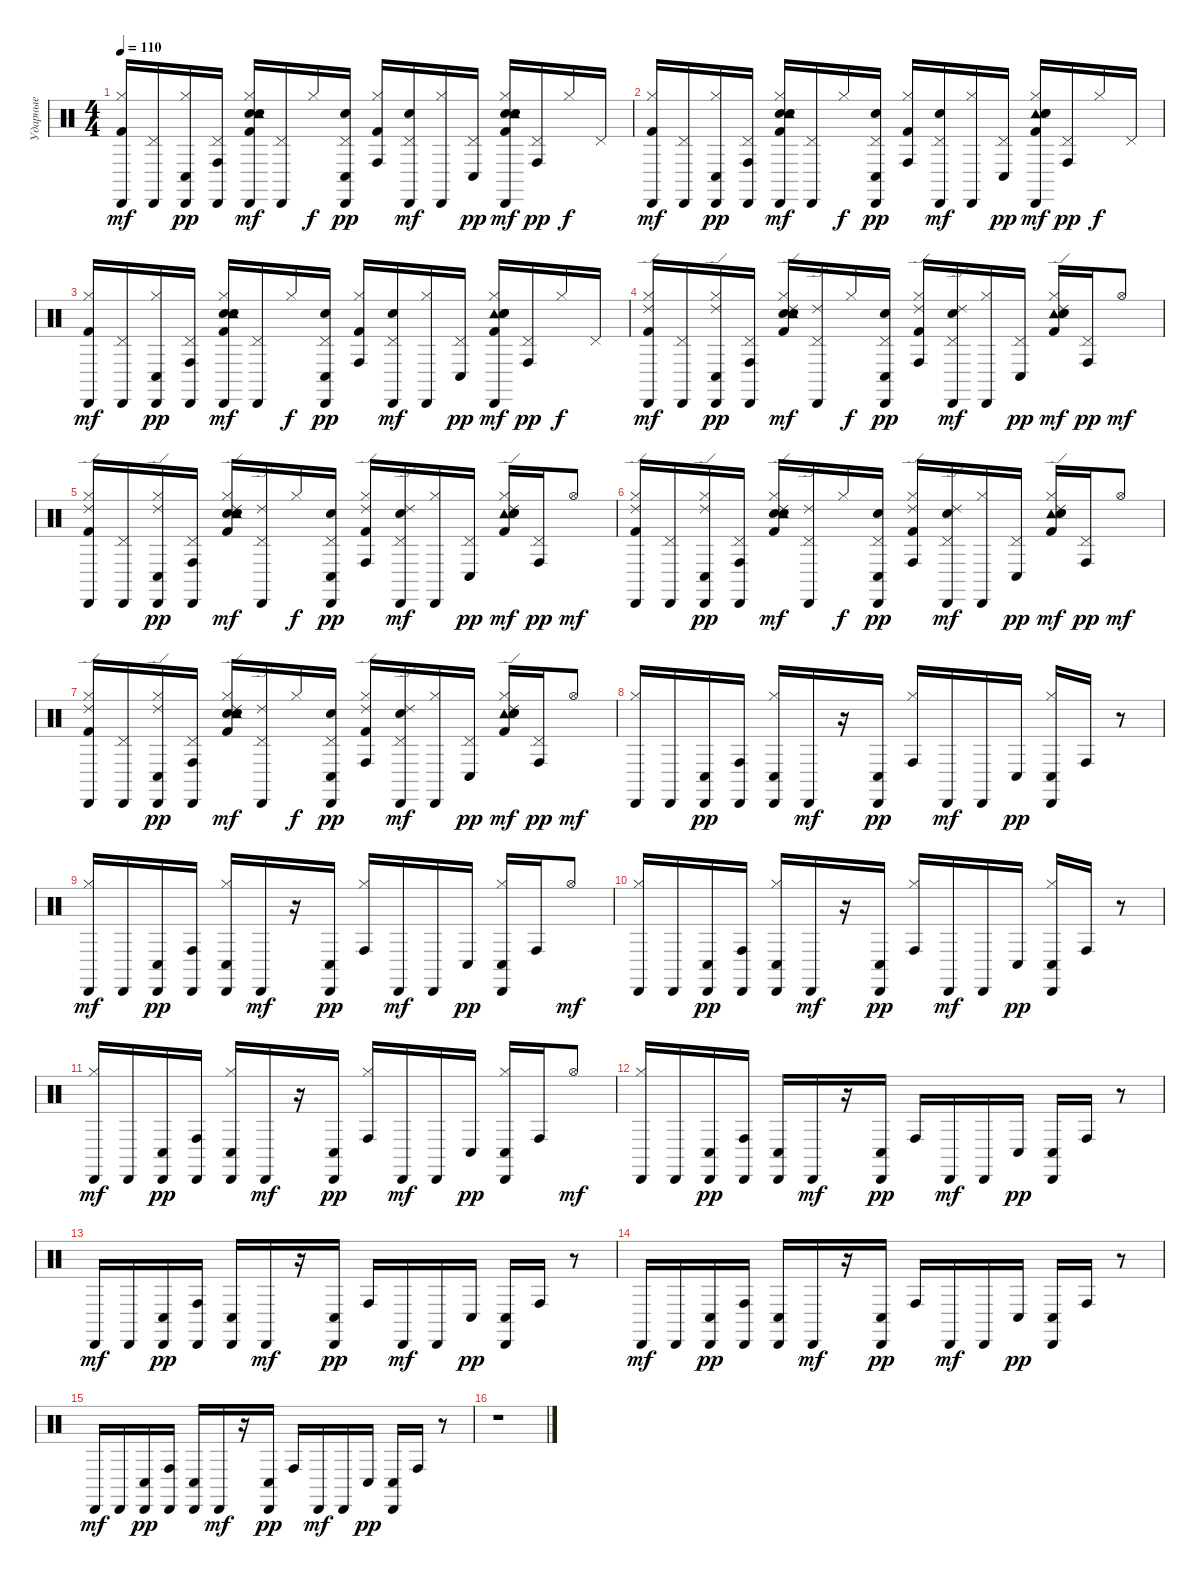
\track ("Ударные" "Ударные") {instrument percussion}
\staff {score}
\articulation defaults
\ts (4 4)
\tempo 110
\clef neutral
\ks c
("Kick (hit) 2" "Hi-Hat (closed)" "Cabasa (hit)").16{dy mf} ("Pedal Hi-Hat (hit)" "Cabasa (hit)").16 ("Hi-Hat (closed)" "Cabasa (hit)" "Conga low (hit)").16{dy pp} ("Pedal Hi-Hat (hit)" "Cabasa (hit)" "Conga high (hit)").16 ("Kick (hit) 2" "Snare (hit) 2" "Tambourine (hit)" "Electric Snare (hit)" "Hi-Hat (closed)" "Cabasa (hit)").16{dy mf} ("Pedal Hi-Hat (hit)" "Cabasa (hit)").16 "Hi-Hat (closed)".16{dy f} ("Electric Snare (hit)" "Pedal Hi-Hat (hit)" "Cabasa (hit)" "Conga low (hit)").16{dy pp} ("Kick (hit) 2" "Hi-Hat (closed)" "Conga high (hit)").16 ("Electric Snare (hit)" "Pedal Hi-Hat (hit)" "Cabasa (hit)").16{dy mf} ("Hi-Hat (closed)" "Cabasa (hit)").16 ("Pedal Hi-Hat (hit)" "Conga low (hit)").16{dy pp} ("Electric Snare (hit)" "Kick (hit) 2" "Tambourine (hit)" "Snare (hit) 2" "Hi-Hat (closed)" "Cabasa (hit)").16{dy mf} ("Pedal Hi-Hat (hit)" "Conga high (hit)").16{dy pp} "Hi-Hat (closed)".16{dy f} "Pedal Hi-Hat (hit)".16 |
("Kick (hit) 2" "Hi-Hat (closed)" "Cabasa (hit)").16{dy mf} ("Pedal Hi-Hat (hit)" "Cabasa (hit)").16 ("Hi-Hat (closed)" "Cabasa (hit)" "Conga low (hit)").16{dy pp} ("Pedal Hi-Hat (hit)" "Cabasa (hit)" "Conga high (hit)").16 ("Kick (hit) 2" "Snare (hit) 2" "Tambourine (hit)" "Electric Snare (hit)" "Hi-Hat (closed)" "Cabasa (hit)").16{dy mf} ("Pedal Hi-Hat (hit)" "Cabasa (hit)").16 "Hi-Hat (closed)".16{dy f} ("Electric Snare (hit)" "Pedal Hi-Hat (hit)" "Cabasa (hit)" "Conga low (hit)").16{dy pp} ("Kick (hit) 2" "Hi-Hat (closed)" "Conga high (hit)").16 ("Electric Snare (hit)" "Pedal Hi-Hat (hit)" "Cabasa (hit)").16{dy mf} ("Hi-Hat (closed)" "Cabasa (hit)").16 ("Pedal Hi-Hat (hit)" "Conga low (hit)").16{dy pp} ("Tambourine (hit)" "Electric Snare (hit)" "Snare (hit) 2" "Kick (hit) 2" "Hi-Hat (closed)" "Cabasa (hit)").16{dy mf} ("Pedal Hi-Hat (hit)" "Conga high (hit)").16{dy pp} "Hi-Hat (closed)".16{dy f} "Pedal Hi-Hat (hit)".16 |
("Kick (hit) 2" "Hi-Hat (closed)" "Cabasa (hit)").16{dy mf} ("Pedal Hi-Hat (hit)" "Cabasa (hit)").16 ("Hi-Hat (closed)" "Cabasa (hit)" "Conga low (hit)").16{dy pp} ("Pedal Hi-Hat (hit)" "Cabasa (hit)" "Conga high (hit)").16 ("Snare (hit) 2" "Kick (hit) 2" "Tambourine (hit)" "Electric Snare (hit)" "Hi-Hat (closed)" "Cabasa (hit)").16{dy mf} ("Pedal Hi-Hat (hit)" "Cabasa (hit)").16 "Hi-Hat (closed)".16{dy f} ("Electric Snare (hit)" "Pedal Hi-Hat (hit)" "Cabasa (hit)" "Conga low (hit)").16{dy pp} ("Kick (hit) 2" "Hi-Hat (closed)" "Conga high (hit)").16 ("Electric Snare (hit)" "Pedal Hi-Hat (hit)" "Cabasa (hit)").16{dy mf} ("Hi-Hat (closed)" "Cabasa (hit)").16 ("Pedal Hi-Hat (hit)" "Conga low (hit)").16{dy pp} ("Kick (hit) 2" "Tambourine (hit)" "Snare (hit) 2" "Electric Snare (hit)" "Hi-Hat (closed)" "Cabasa (hit)").16{dy mf} ("Pedal Hi-Hat (hit)" "Conga high (hit)").16{dy pp} "Hi-Hat (closed)".16{dy f} "Pedal Hi-Hat (hit)".16 |
("Kick (hit) 2" "Hi-Hat (closed)" "Ride (edge) 2" "Cabasa (hit)").16{dy mf} ("Pedal Hi-Hat (hit)" "Cabasa (hit)").16 ("Hi-Hat (closed)" "Ride (edge) 2" "Cabasa (hit)" "Conga low (hit)").16{dy pp} ("Pedal Hi-Hat (hit)" "Cabasa (hit)" "Conga high (hit)").16 ("Snare (hit) 2" "Kick (hit) 2" "Tambourine (hit)" "Electric Snare (hit)" "Hi-Hat (closed)" "Ride (edge) 2").16{dy mf} ("Pedal Hi-Hat (hit)" "Ride (edge) 2" "Cabasa (hit)").16 "Hi-Hat (closed)".16{dy f} ("Electric Snare (hit)" "Pedal Hi-Hat (hit)" "Cabasa (hit)" "Conga low (hit)").16{dy pp} ("Kick (hit) 2" "Hi-Hat (closed)" "Ride (edge) 2" "Conga high (hit)").16 ("Electric Snare (hit)" "Pedal Hi-Hat (hit)" "Ride (edge) 2" "Cabasa (hit)").16{dy mf} ("Hi-Hat (closed)" "Cabasa (hit)").16 ("Pedal Hi-Hat (hit)" "Conga low (hit)").16{dy pp} ("Kick (hit) 2" "Tambourine (hit)" "Snare (hit) 2" "Electric Snare (hit)" "Hi-Hat (closed)" "Ride (edge) 2").16{dy mf} ("Pedal Hi-Hat (hit)" "Conga high (hit)").16{dy pp} "Hi-Hat (open)".8{dy mf} |
("Kick (hit) 2" "Hi-Hat (closed)" "Ride (edge) 2" "Cabasa (hit)").16 ("Pedal Hi-Hat (hit)" "Cabasa (hit)").16 ("Hi-Hat (closed)" "Ride (edge) 2" "Cabasa (hit)" "Conga low (hit)").16{dy pp} ("Pedal Hi-Hat (hit)" "Cabasa (hit)" "Conga high (hit)").16 ("Snare (hit) 2" "Kick (hit) 2" "Tambourine (hit)" "Electric Snare (hit)" "Hi-Hat (closed)" "Ride (edge) 2").16{dy mf} ("Pedal Hi-Hat (hit)" "Ride (edge) 2" "Cabasa (hit)").16 "Hi-Hat (closed)".16{dy f} ("Electric Snare (hit)" "Pedal Hi-Hat (hit)" "Cabasa (hit)" "Conga low (hit)").16{dy pp} ("Kick (hit) 2" "Hi-Hat (closed)" "Ride (edge) 2" "Conga high (hit)").16 ("Electric Snare (hit)" "Pedal Hi-Hat (hit)" "Ride (edge) 2" "Cabasa (hit)").16{dy mf} ("Hi-Hat (closed)" "Cabasa (hit)").16 ("Pedal Hi-Hat (hit)" "Conga low (hit)").16{dy pp} ("Kick (hit) 2" "Tambourine (hit)" "Snare (hit) 2" "Electric Snare (hit)" "Hi-Hat (closed)" "Ride (edge) 2").16{dy mf} ("Pedal Hi-Hat (hit)" "Conga high (hit)").16{dy pp} "Hi-Hat (open)".8{dy mf} |
("Kick (hit) 2" "Hi-Hat (closed)" "Ride (edge) 2" "Cabasa (hit)").16 ("Pedal Hi-Hat (hit)" "Cabasa (hit)").16 ("Hi-Hat (closed)" "Ride (edge) 2" "Cabasa (hit)" "Conga low (hit)").16{dy pp} ("Pedal Hi-Hat (hit)" "Cabasa (hit)" "Conga high (hit)").16 ("Snare (hit) 2" "Kick (hit) 2" "Tambourine (hit)" "Electric Snare (hit)" "Hi-Hat (closed)" "Ride (edge) 2").16{dy mf} ("Pedal Hi-Hat (hit)" "Ride (edge) 2" "Cabasa (hit)").16 "Hi-Hat (closed)".16{dy f} ("Electric Snare (hit)" "Pedal Hi-Hat (hit)" "Cabasa (hit)" "Conga low (hit)").16{dy pp} ("Kick (hit) 2" "Hi-Hat (closed)" "Ride (edge) 2" "Conga high (hit)").16 ("Electric Snare (hit)" "Pedal Hi-Hat (hit)" "Ride (edge) 2" "Cabasa (hit)").16{dy mf} ("Hi-Hat (closed)" "Cabasa (hit)").16 ("Pedal Hi-Hat (hit)" "Conga low (hit)").16{dy pp} ("Kick (hit) 2" "Tambourine (hit)" "Snare (hit) 2" "Electric Snare (hit)" "Hi-Hat (closed)" "Ride (edge) 2").16{dy mf} ("Pedal Hi-Hat (hit)" "Conga high (hit)").16{dy pp} "Hi-Hat (open)".8{dy mf} |
("Kick (hit) 2" "Hi-Hat (closed)" "Ride (edge) 2" "Cabasa (hit)").16 ("Pedal Hi-Hat (hit)" "Cabasa (hit)").16 ("Hi-Hat (closed)" "Ride (edge) 2" "Cabasa (hit)" "Conga low (hit)").16{dy pp} ("Pedal Hi-Hat (hit)" "Cabasa (hit)" "Conga high (hit)").16 ("Snare (hit) 2" "Kick (hit) 2" "Tambourine (hit)" "Electric Snare (hit)" "Hi-Hat (closed)" "Ride (edge) 2").16{dy mf} ("Pedal Hi-Hat (hit)" "Ride (edge) 2" "Cabasa (hit)").16 "Hi-Hat (closed)".16{dy f} ("Electric Snare (hit)" "Pedal Hi-Hat (hit)" "Cabasa (hit)" "Conga low (hit)").16{dy pp} ("Kick (hit) 2" "Hi-Hat (closed)" "Ride (edge) 2" "Conga high (hit)").16 ("Electric Snare (hit)" "Pedal Hi-Hat (hit)" "Ride (edge) 2" "Cabasa (hit)").16{dy mf} ("Hi-Hat (closed)" "Cabasa (hit)").16 ("Pedal Hi-Hat (hit)" "Conga low (hit)").16{dy pp} ("Kick (hit) 2" "Tambourine (hit)" "Snare (hit) 2" "Electric Snare (hit)" "Hi-Hat (closed)" "Ride (edge) 2").16{dy mf} ("Pedal Hi-Hat (hit)" "Conga high (hit)").16{dy pp} "Hi-Hat (open)".8{dy mf} |
("Hi-Hat (closed)" "Cabasa (hit)").16 "Cabasa (hit)".16 ("Cabasa (hit)" "Conga low (hit)").16{dy pp} ("Cabasa (hit)" "Conga high (hit)").16 ("Hi-Hat (closed)" "Cabasa (hit)" "Conga low (hit)").16 "Cabasa (hit)".16{dy mf} r.16 ("Cabasa (hit)" "Conga low (hit)").16{dy pp} ("Hi-Hat (closed)" "Conga high (hit)").16 "Cabasa (hit)".16{dy mf} "Cabasa (hit)".16 "Conga low (hit)".16{dy pp} ("Hi-Hat (closed)" "Cabasa (hit)" "Conga low (hit)").16 "Conga high (hit)".16 r.8 |
("Hi-Hat (closed)" "Cabasa (hit)").16{dy mf} "Cabasa (hit)".16 ("Cabasa (hit)" "Conga low (hit)").16{dy pp} ("Cabasa (hit)" "Conga high (hit)").16 ("Hi-Hat (closed)" "Cabasa (hit)" "Conga low (hit)").16 "Cabasa (hit)".16{dy mf} r.16 ("Cabasa (hit)" "Conga low (hit)").16{dy pp} ("Hi-Hat (closed)" "Conga high (hit)").16 "Cabasa (hit)".16{dy mf} "Cabasa (hit)".16 "Conga low (hit)".16{dy pp} ("Hi-Hat (closed)" "Cabasa (hit)" "Conga low (hit)").16 "Conga high (hit)".16 "Hi-Hat (open)".8{dy mf} |
("Hi-Hat (closed)" "Cabasa (hit)").16 "Cabasa (hit)".16 ("Cabasa (hit)" "Conga low (hit)").16{dy pp} ("Cabasa (hit)" "Conga high (hit)").16 ("Hi-Hat (closed)" "Cabasa (hit)" "Conga low (hit)").16 "Cabasa (hit)".16{dy mf} r.16 ("Cabasa (hit)" "Conga low (hit)").16{dy pp} ("Hi-Hat (closed)" "Conga high (hit)").16 "Cabasa (hit)".16{dy mf} "Cabasa (hit)".16 "Conga low (hit)".16{dy pp} ("Hi-Hat (closed)" "Cabasa (hit)" "Conga low (hit)").16 "Conga high (hit)".16 r.8 |
("Hi-Hat (closed)" "Cabasa (hit)").16{dy mf} "Cabasa (hit)".16 ("Cabasa (hit)" "Conga low (hit)").16{dy pp} ("Cabasa (hit)" "Conga high (hit)").16 ("Hi-Hat (closed)" "Cabasa (hit)" "Conga low (hit)").16 "Cabasa (hit)".16{dy mf} r.16 ("Cabasa (hit)" "Conga low (hit)").16{dy pp} ("Hi-Hat (closed)" "Conga high (hit)").16 "Cabasa (hit)".16{dy mf} "Cabasa (hit)".16 "Conga low (hit)".16{dy pp} ("Hi-Hat (closed)" "Cabasa (hit)" "Conga low (hit)").16 "Conga high (hit)".16 "Hi-Hat (open)".8{dy mf} |
("Hi-Hat (closed)" "Cabasa (hit)").16 "Cabasa (hit)".16 ("Cabasa (hit)" "Conga low (hit)").16{dy pp} ("Cabasa (hit)" "Conga high (hit)").16 ("Cabasa (hit)" "Conga low (hit)").16 "Cabasa (hit)".16{dy mf} r.16 ("Cabasa (hit)" "Conga low (hit)").16{dy pp} "Conga high (hit)".16 "Cabasa (hit)".16{dy mf} "Cabasa (hit)".16 "Conga low (hit)".16{dy pp} ("Cabasa (hit)" "Conga low (hit)").16 "Conga high (hit)".16 r.8 |
"Cabasa (hit)".16{dy mf} "Cabasa (hit)".16 ("Cabasa (hit)" "Conga low (hit)").16{dy pp} ("Cabasa (hit)" "Conga high (hit)").16 ("Cabasa (hit)" "Conga low (hit)").16 "Cabasa (hit)".16{dy mf} r.16 ("Cabasa (hit)" "Conga low (hit)").16{dy pp} "Conga high (hit)".16 "Cabasa (hit)".16{dy mf} "Cabasa (hit)".16 "Conga low (hit)".16{dy pp} ("Cabasa (hit)" "Conga low (hit)").16 "Conga high (hit)".16 r.8 |
"Cabasa (hit)".16{dy mf} "Cabasa (hit)".16 ("Cabasa (hit)" "Conga low (hit)").16{dy pp} ("Cabasa (hit)" "Conga high (hit)").16 ("Cabasa (hit)" "Conga low (hit)").16 "Cabasa (hit)".16{dy mf} r.16 ("Cabasa (hit)" "Conga low (hit)").16{dy pp} "Conga high (hit)".16 "Cabasa (hit)".16{dy mf} "Cabasa (hit)".16 "Conga low (hit)".16{dy pp} ("Cabasa (hit)" "Conga low (hit)").16 "Conga high (hit)".16 r.8 |
"Cabasa (hit)".16{dy mf} "Cabasa (hit)".16 ("Cabasa (hit)" "Conga low (hit)").16{dy pp} ("Cabasa (hit)" "Conga high (hit)").16 ("Cabasa (hit)" "Conga low (hit)").16 "Cabasa (hit)".16{dy mf} r.16 ("Cabasa (hit)" "Conga low (hit)").16{dy pp} "Conga high (hit)".16 "Cabasa (hit)".16{dy mf} "Cabasa (hit)".16 "Conga low (hit)".16{dy pp} ("Cabasa (hit)" "Conga low (hit)").16 "Conga high (hit)".16 r.8 |
r.1
